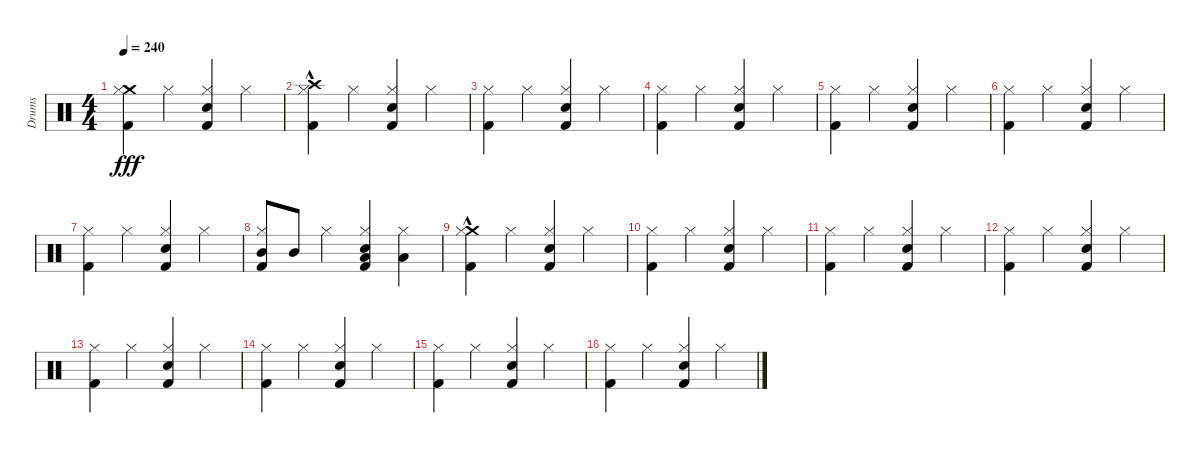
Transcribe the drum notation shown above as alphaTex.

\track ("Drums" "Drums") {instrument percussion}
\staff {score}
\articulation defaults
\ts (4 4)
\tempo 240
\clef neutral
\ks c
("Crash medium (hit)" "Kick (hit) 2" "Hi-Hat (closed)").4{dy fff} "Hi-Hat (closed)".4 ("Kick (hit) 2" "Snare (hit) 2" "Hi-Hat (closed)").4 "Hi-Hat (closed)".4 |
("Crash high (hit)"{hac} "Kick (hit) 2" "Hi-Hat (closed)").4 "Hi-Hat (closed)".4 ("Snare (hit) 2" "Kick (hit) 2" "Hi-Hat (closed)").4 "Hi-Hat (closed)".4 |
("Kick (hit) 2" "Hi-Hat (closed)").4 "Hi-Hat (closed)".4 ("Snare (hit) 2" "Hi-Hat (closed)" "Kick (hit) 2").4 "Hi-Hat (closed)".4 |
("Kick (hit) 2" "Hi-Hat (closed)").4 "Hi-Hat (closed)".4 ("Snare (hit) 2" "Kick (hit) 2" "Hi-Hat (closed)").4 "Hi-Hat (closed)".4 |
("Kick (hit) 2" "Hi-Hat (closed)").4 "Hi-Hat (closed)".4 ("Kick (hit) 2" "Snare (hit) 2" "Hi-Hat (closed)").4 "Hi-Hat (closed)".4 |
("Kick (hit) 2" "Hi-Hat (closed)").4 "Hi-Hat (closed)".4 ("Hi-Hat (closed)" "Snare (hit) 2" "Kick (hit) 2").4 "Hi-Hat (closed)".4 |
("Kick (hit) 2" "Hi-Hat (closed)").4 "Hi-Hat (closed)".4 ("Kick (hit) 2" "Hi-Hat (closed)" "Snare (hit) 2").4 "Hi-Hat (closed)".4 |
("Mid Tom (hit)" "Kick (hit) 2" "Hi-Hat (closed)").8 "Mid Tom (hit)".8 "Hi-Hat (closed)".4 ("Low Floor Tom (hit)" "Snare (hit) 2" "Kick (hit) 2" "Hi-Hat (closed)").4 ("Low Floor Tom (hit)" "Hi-Hat (closed)").4 |
("Crash medium (hit)"{hac} "Kick (hit) 2" "Hi-Hat (closed)").4 "Hi-Hat (closed)".4 ("Kick (hit) 2" "Snare (hit) 2" "Hi-Hat (closed)").4 "Hi-Hat (closed)".4 |
("Kick (hit) 2" "Hi-Hat (closed)").4 "Hi-Hat (closed)".4 ("Snare (hit) 2" "Kick (hit) 2" "Hi-Hat (closed)").4 "Hi-Hat (closed)".4 |
("Kick (hit) 2" "Hi-Hat (closed)").4 "Hi-Hat (closed)".4 ("Snare (hit) 2" "Hi-Hat (closed)" "Kick (hit) 2").4 "Hi-Hat (closed)".4 |
("Kick (hit) 2" "Hi-Hat (closed)").4 "Hi-Hat (closed)".4 ("Snare (hit) 2" "Kick (hit) 2" "Hi-Hat (closed)").4 "Hi-Hat (closed)".4 |
("Kick (hit) 2" "Hi-Hat (closed)").4 "Hi-Hat (closed)".4 ("Kick (hit) 2" "Snare (hit) 2" "Hi-Hat (closed)").4 "Hi-Hat (closed)".4 |
("Kick (hit) 2" "Hi-Hat (closed)").4 "Hi-Hat (closed)".4 ("Hi-Hat (closed)" "Snare (hit) 2" "Kick (hit) 2").4 "Hi-Hat (closed)".4 |
("Kick (hit) 2" "Hi-Hat (closed)").4 "Hi-Hat (closed)".4 ("Kick (hit) 2" "Hi-Hat (closed)" "Snare (hit) 2").4 "Hi-Hat (closed)".4 |
("Kick (hit) 2" "Hi-Hat (closed)").4 "Hi-Hat (closed)".4 ("Snare (hit) 2" "Kick (hit) 2" "Hi-Hat (closed)").4 "Hi-Hat (closed)".4
